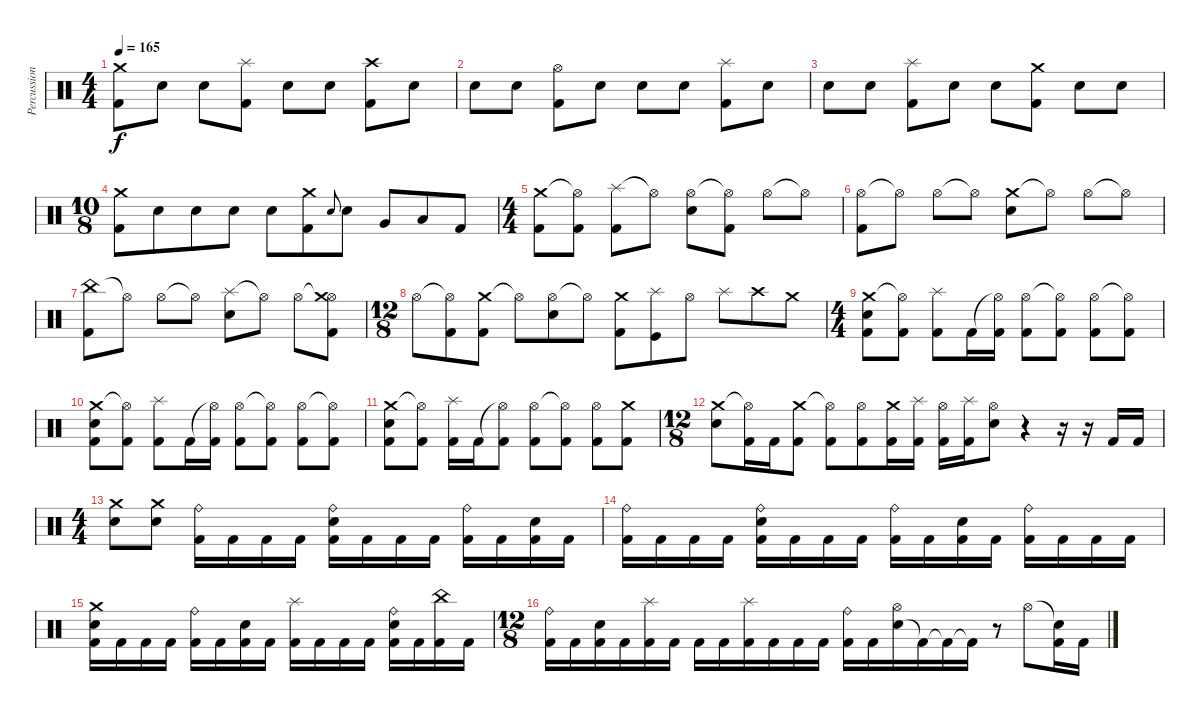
\track ("Percussion" "Percussion") {instrument percussion}
\staff {score}
\articulation defaults
\ts (4 4)
\tempo 165
\clef neutral
\ks c
("Crash medium (hit)" "Kick (hit) 2").8{dy f} "Electric Snare (hit)".8 "Electric Snare (hit)".8 ("Splash (hit)" "Kick (hit) 2").8 "Electric Snare (hit)".8 "Electric Snare (hit)".8 ("Crash high (hit)" "Kick (hit) 2").8 "Electric Snare (hit)".8 |
"Electric Snare (hit)".8 "Electric Snare (hit)".8 ("Hi-Hat (open)" "Kick (hit) 2").8 "Electric Snare (hit)".8 "Electric Snare (hit)".8 "Electric Snare (hit)".8 ("Splash (hit)" "Kick (hit) 2").8 "Electric Snare (hit)".8 |
"Electric Snare (hit)".8 "Electric Snare (hit)".8 ("Splash (hit)" "Kick (hit) 2").8 "Electric Snare (hit)".8 "Electric Snare (hit)".8 ("Crash medium (hit)" "Kick (hit) 2").8 "Electric Snare (hit)".8 "Electric Snare (hit)".8 |
\ts (10 8)
("Crash medium (hit)" "Kick (hit) 2").8 "Electric Snare (hit)".8 "Electric Snare (hit)".8 "Electric Snare (hit)".8 "Electric Snare (hit)".8 ("Kick (hit) 2" "Crash medium (hit)").8 "Electric Snare (hit)".8{gr onbeat} "Electric Snare (hit)".8 "Very Low Tom (hit)".8 "Low Floor Tom (hit)".8 "Kick (hit) 2".8 |
\ts (4 4)
("Crash medium (hit)" "Kick (hit) 2").8 ("Hi-Hat (open)"{t} "Kick (hit) 2").8 ("Splash (hit)" "Kick (hit) 2").8 "Hi-Hat (open)"{t}.8 ("Hi-Hat (open)" "Electric Snare (hit)").8 ("Hi-Hat (open)"{t} "Kick (hit) 2").8 "Hi-Hat (open)".8 "Hi-Hat (open)"{t}.8 |
("Hi-Hat (open)" "Kick (hit) 2").8 "Hi-Hat (open)"{t}.8 "Hi-Hat (open)".8 "Hi-Hat (open)"{t}.8 ("Crash medium (hit)" "Electric Snare (hit)").8 "Hi-Hat (open)"{t}.8 "Hi-Hat (open)".8 "Hi-Hat (open)"{t}.8 |
("China (hit)" "Kick (hit) 2").8 "Hi-Hat (open)"{t}.8 "Hi-Hat (open)".8 "Hi-Hat (open)"{t}.8 ("Splash (hit)" "Electric Snare (hit)").8 "Hi-Hat (open)"{t}.8 "Hi-Hat (open)".8 ("Hi-Hat (open)"{t} "Crash medium (hit)" "Kick (hit) 2").8 |
\ts (12 8)
"Hi-Hat (open)".8 ("Hi-Hat (open)"{t} "Kick (hit) 2").8 ("Crash medium (hit)" "Kick (hit) 2").8 "Hi-Hat (open)"{t}.8 ("Hi-Hat (open)" "Electric Snare (hit)").8 "Hi-Hat (open)"{t}.8 ("Crash medium (hit)" "Kick (hit) 2").8 ("Splash (hit)" "Kick (hit)").8 "Hi-Hat (open)".8 "Splash (hit)".8 "Crash high (hit)".8 "Crash medium (hit)".8 |
\ts (4 4)
("Crash medium (hit)" "Electric Snare (hit)" "Kick (hit) 2").8 ("Hi-Hat (open)"{t} "Kick (hit) 2").8 ("Splash (hit)" "Kick (hit) 2").8 "Kick (hit) 2".16 ("Hi-Hat (open)"{t} "Kick (hit) 2").16 ("Hi-Hat (open)" "Kick (hit) 2").8 ("Hi-Hat (open)"{t} "Kick (hit) 2").8 ("Hi-Hat (open)" "Kick (hit) 2").8 ("Hi-Hat (open)"{t} "Kick (hit) 2").8 |
("Crash medium (hit)" "Electric Snare (hit)" "Kick (hit) 2").8 ("Hi-Hat (open)"{t} "Kick (hit) 2").8 ("Splash (hit)" "Kick (hit) 2").8 "Kick (hit) 2".16 ("Hi-Hat (open)"{t} "Kick (hit) 2").16 ("Hi-Hat (open)" "Kick (hit) 2").8 ("Hi-Hat (open)"{t} "Kick (hit) 2").8 ("Hi-Hat (open)" "Kick (hit) 2").8 ("Hi-Hat (open)"{t} "Kick (hit) 2").8 |
("Crash medium (hit)" "Electric Snare (hit)" "Kick (hit) 2").8 ("Hi-Hat (open)"{t} "Kick (hit) 2").8 ("Splash (hit)" "Kick (hit) 2").16 "Kick (hit) 2".16 ("Hi-Hat (open)"{t} "Kick (hit) 2").8 ("Hi-Hat (open)" "Kick (hit) 2").8 ("Hi-Hat (open)"{t} "Kick (hit) 2").8 ("Hi-Hat (open)" "Kick (hit) 2").8 ("Crash medium (hit)" "Kick (hit) 2").8 |
\ts (12 8)
("Crash medium (hit)" "Electric Snare (hit)").8 ("Hi-Hat (open)"{t} "Kick (hit) 2").16 "Kick (hit) 2".16 ("Crash medium (hit)" "Kick (hit) 2").8 ("Hi-Hat (open)"{t} "Kick (hit) 2").8 ("Hi-Hat (open)" "Kick (hit) 2").8 ("Crash medium (hit)" "Kick (hit) 2").16 ("Splash (hit)" "Kick (hit) 2").16 ("Hi-Hat (open)" "Kick (hit) 2").16 ("Splash (hit)" "Kick (hit) 2").16 ("Hi-Hat (open)" "Electric Snare (hit)").8 r.4 r.16 r.16 "Kick (hit) 2".16 "Kick (hit) 2".16 |
\ts (4 4)
("Electric Snare (hit)" "Crash medium (hit)").8 ("Electric Snare (hit)" "Crash medium (hit)").8 ("Kick (hit) 2" "Ride (bell)").16 "Kick (hit) 2".16 "Kick (hit) 2".16 "Kick (hit) 2".16 ("Kick (hit) 2" "Electric Snare (hit)" "Ride (bell)").16 "Kick (hit) 2".16 "Kick (hit) 2".16 "Kick (hit) 2".16 ("Kick (hit) 2" "Ride (bell)").16 "Kick (hit) 2".16 ("Kick (hit) 2" "Electric Snare (hit)").16 "Kick (hit) 2".16 |
("Kick (hit) 2" "Ride (bell)").16 "Kick (hit) 2".16 "Kick (hit) 2".16 "Kick (hit) 2".16 ("Kick (hit) 2" "Electric Snare (hit)" "Ride (bell)").16 "Kick (hit) 2".16 "Kick (hit) 2".16 "Kick (hit) 2".16 ("Kick (hit) 2" "Ride (bell)").16 "Kick (hit) 2".16 ("Kick (hit) 2" "Electric Snare (hit)").16 "Kick (hit) 2".16 ("Kick (hit) 2" "Ride (bell)").16 "Kick (hit) 2".16 "Kick (hit) 2".16 "Kick (hit) 2".16 |
("Kick (hit) 2" "Electric Snare (hit)" "Crash medium (hit)").16 "Kick (hit) 2".16 "Kick (hit) 2".16 "Kick (hit) 2".16 ("Kick (hit) 2" "Ride (bell)").16 "Kick (hit) 2".16 ("Kick (hit) 2" "Electric Snare (hit)").16 "Kick (hit) 2".16 ("Kick (hit) 2" "Splash (hit)").16 "Kick (hit) 2".16 "Kick (hit) 2".16 "Kick (hit) 2".16 ("Kick (hit) 2" "Electric Snare (hit)" "Ride (bell)").16 "Kick (hit) 2".16 ("Kick (hit) 2" "China (hit)").16 "Kick (hit) 2".16 |
\ts (12 8)
("Kick (hit) 2" "Ride (bell)").16 "Kick (hit) 2".16 ("Kick (hit) 2" "Electric Snare (hit)").16 "Kick (hit) 2".16 ("Kick (hit) 2" "Splash (hit)").16 "Kick (hit) 2".16 "Kick (hit) 2".16 "Kick (hit) 2".16 ("Kick (hit) 2" "Splash (hit)").16 "Kick (hit) 2".16 "Kick (hit) 2".16 "Kick (hit) 2".16 ("Kick (hit) 2" "Ride (bell)").16 "Kick (hit) 2".16 ("Electric Snare (hit)" "Hi-Hat (open)").16 "Kick (hit) 2"{t}.16 "Kick (hit) 2"{t}.16 "Kick (hit) 2"{t}.16 r.8 "Hi-Hat (open)".8 ("Snare (hit)"{t} "Kick (hit) 2").16 "Kick (hit) 2".16
